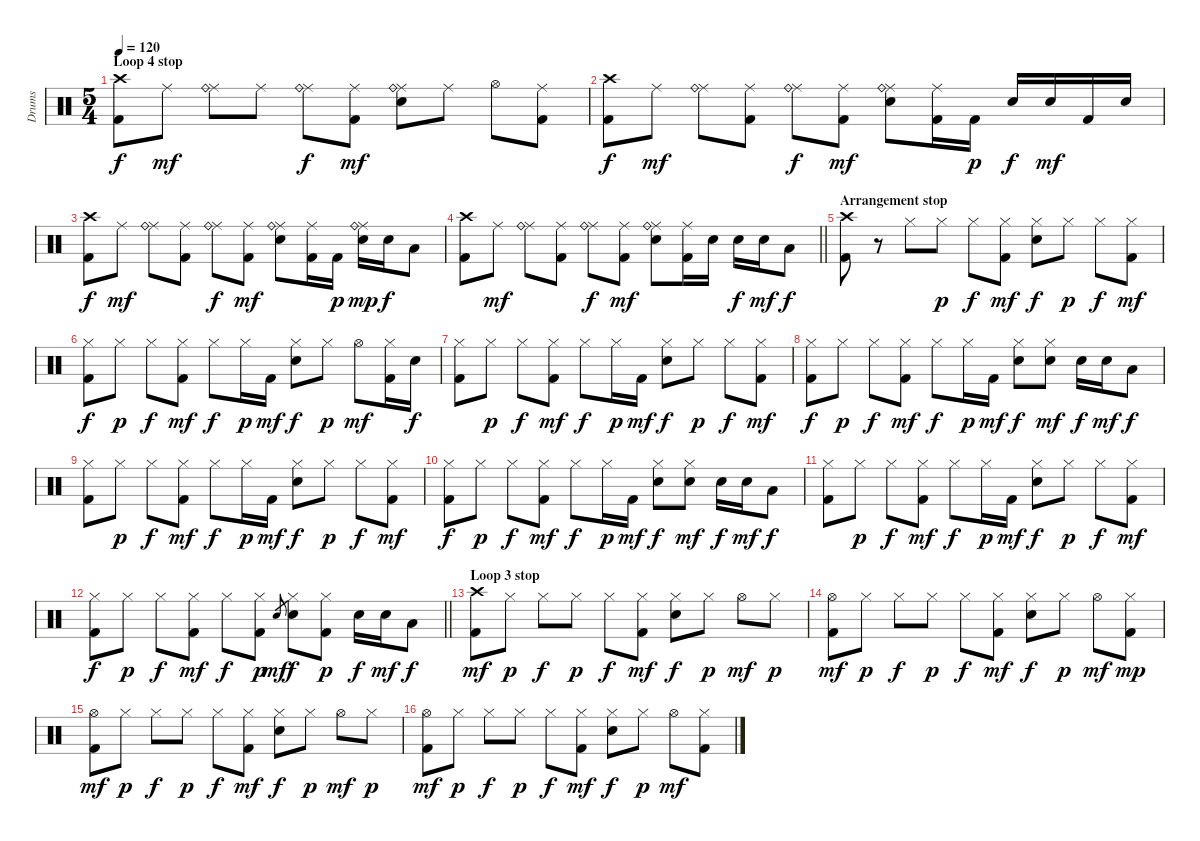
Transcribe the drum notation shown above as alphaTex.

\track ("Drums" "Drums") {instrument percussion}
\staff {score}
\articulation defaults
\ts (5 4)
\section ("" "Loop 4 stop")
\tempo 120
\clef neutral
\ks c
("Crash high (hit)" "Kick (hit) 2").8{dy f} "Ride (middle)".8{dy mf} ("Ride (middle)" "Ride (bell)").8 "Ride (middle)".8 ("Ride (middle)" "Ride (bell)").8{dy f} ("Ride (middle)" "Kick (hit) 2").8{dy mf} ("Ride (middle)" "Ride (bell)" "Electric Snare (hit)").8 "Ride (middle)".8 "Hi-Hat (open)".8 ("Ride (middle)" "Kick (hit) 2").8 |
("Crash high (hit)" "Kick (hit) 2").8{dy f} "Ride (middle)".8{dy mf} ("Ride (middle)" "Ride (bell)").8 ("Ride (middle)" "Kick (hit) 2").8 ("Ride (middle)" "Ride (bell)").8{dy f} ("Ride (middle)" "Kick (hit) 2").8{dy mf} ("Ride (middle)" "Ride (bell)" "Electric Snare (hit)").8 ("Ride (middle)" "Kick (hit) 2").16 "Kick (hit) 2".16{dy p} "Electric Snare (hit)".16{dy f} "Electric Snare (hit)".16{dy mf} "Kick (hit) 2".16 "Electric Snare (hit)".16 |
("Crash high (hit)" "Kick (hit) 2").8{dy f} "Ride (middle)".8{dy mf} ("Ride (middle)" "Ride (bell)").8 ("Ride (middle)" "Kick (hit) 2").8 ("Ride (middle)" "Ride (bell)").8{dy f} ("Ride (middle)" "Kick (hit) 2").8{dy mf} ("Ride (middle)" "Ride (bell)" "Electric Snare (hit)").8 ("Ride (middle)" "Kick (hit) 2").16 "Kick (hit) 2".16{dy p} ("Ride (middle)" "Ride (bell)" "Electric Snare (hit)").16{dy mp} "Electric Snare (hit)".16{dy f} "Low Tom (hit)".8 |
\barLineRight lightlight
("Crash high (hit)" "Kick (hit) 2").8 "Ride (middle)".8{dy mf} ("Ride (middle)" "Ride (bell)").8 ("Ride (middle)" "Kick (hit) 2").8 ("Ride (middle)" "Ride (bell)").8{dy f} ("Ride (middle)" "Kick (hit) 2").8{dy mf} ("Ride (middle)" "Ride (bell)" "Electric Snare (hit)").8 ("Ride (middle)" "Kick (hit) 2").16 "Electric Snare (hit)".16 "Electric Snare (hit)".16{dy f} "Electric Snare (hit)".16{dy mf} "Low Tom (hit)".8{dy f} |
\section ("" "Arrangement stop")
("Crash high (hit)" "Kick (hit) 2").8 r.8 "Hi-Hat (closed)".8 "Hi-Hat (closed)".8{dy p} "Hi-Hat (closed)".8{dy f} ("Hi-Hat (closed)" "Kick (hit) 2").8{dy mf} ("Hi-Hat (closed)" "Electric Snare (hit)").8{dy f} "Hi-Hat (closed)".8{dy p} "Hi-Hat (closed)".8{dy f} ("Hi-Hat (closed)" "Kick (hit) 2").8{dy mf} |
("Hi-Hat (closed)" "Kick (hit) 2").8{dy f} "Hi-Hat (closed)".8{dy p} "Hi-Hat (closed)".8{dy f} ("Hi-Hat (closed)" "Kick (hit) 2").8{dy mf} "Hi-Hat (closed)".8{dy f} "Hi-Hat (closed)".16{dy p} "Kick (hit) 2".16{dy mf} ("Hi-Hat (closed)" "Electric Snare (hit)").8{dy f} "Hi-Hat (closed)".8{dy p} "Hi-Hat (open)".8{dy mf} ("Hi-Hat (closed)" "Kick (hit) 2").16 "Electric Snare (hit)".16{dy f} |
("Hi-Hat (closed)" "Kick (hit) 2").8 "Hi-Hat (closed)".8{dy p} "Hi-Hat (closed)".8{dy f} ("Hi-Hat (closed)" "Kick (hit) 2").8{dy mf} "Hi-Hat (closed)".8{dy f} "Hi-Hat (closed)".16{dy p} "Kick (hit) 2".16{dy mf} ("Hi-Hat (closed)" "Electric Snare (hit)").8{dy f} "Hi-Hat (closed)".8{dy p} "Hi-Hat (closed)".8{dy f} ("Hi-Hat (closed)" "Kick (hit) 2").8{dy mf} |
("Hi-Hat (closed)" "Kick (hit) 2").8{dy f} "Hi-Hat (closed)".8{dy p} "Hi-Hat (closed)".8{dy f} ("Hi-Hat (closed)" "Kick (hit) 2").8{dy mf} "Hi-Hat (closed)".8{dy f} "Hi-Hat (closed)".16{dy p} "Kick (hit) 2".16{dy mf} ("Hi-Hat (closed)" "Electric Snare (hit)").8{dy f} ("Hi-Hat (closed)" "Electric Snare (hit)").8{dy mf} "Electric Snare (hit)".16{dy f} "Electric Snare (hit)".16{dy mf} "Low Tom (hit)".8{dy f} |
("Hi-Hat (closed)" "Kick (hit) 2").8 "Hi-Hat (closed)".8{dy p} "Hi-Hat (closed)".8{dy f} ("Hi-Hat (closed)" "Kick (hit) 2").8{dy mf} "Hi-Hat (closed)".8{dy f} "Hi-Hat (closed)".16{dy p} "Kick (hit) 2".16{dy mf} ("Hi-Hat (closed)" "Electric Snare (hit)").8{dy f} "Hi-Hat (closed)".8{dy p} "Hi-Hat (closed)".8{dy f} ("Hi-Hat (closed)" "Kick (hit) 2").8{dy mf} |
("Hi-Hat (closed)" "Kick (hit) 2").8{dy f} "Hi-Hat (closed)".8{dy p} "Hi-Hat (closed)".8{dy f} ("Hi-Hat (closed)" "Kick (hit) 2").8{dy mf} "Hi-Hat (closed)".8{dy f} "Hi-Hat (closed)".16{dy p} "Kick (hit) 2".16{dy mf} ("Hi-Hat (closed)" "Electric Snare (hit)").8{dy f} ("Hi-Hat (closed)" "Electric Snare (hit)").8{dy mf} "Electric Snare (hit)".16{dy f} "Electric Snare (hit)".16{dy mf} "Low Tom (hit)".8{dy f} |
("Hi-Hat (closed)" "Kick (hit) 2").8 "Hi-Hat (closed)".8{dy p} "Hi-Hat (closed)".8{dy f} ("Hi-Hat (closed)" "Kick (hit) 2").8{dy mf} "Hi-Hat (closed)".8{dy f} "Hi-Hat (closed)".16{dy p} "Kick (hit) 2".16{dy mf} ("Hi-Hat (closed)" "Electric Snare (hit)").8{dy f} "Hi-Hat (closed)".8{dy p} "Hi-Hat (closed)".8{dy f} ("Hi-Hat (closed)" "Kick (hit) 2").8{dy mf} |
\barLineRight lightlight
("Hi-Hat (closed)" "Kick (hit) 2").8{dy f} "Hi-Hat (closed)".8{dy p} "Hi-Hat (closed)".8{dy f} ("Hi-Hat (closed)" "Kick (hit) 2").8{dy mf} "Hi-Hat (closed)".8{dy f} ("Hi-Hat (closed)" "Kick (hit) 2").8{dy p} "Electric Snare (hit)".8{gr dy mf} ("Hi-Hat (closed)" "Electric Snare (hit)").8{dy f} ("Hi-Hat (closed)" "Kick (hit) 2").8{dy p} "Electric Snare (hit)".16{dy f} "Electric Snare (hit)".16{dy mf} "Low Tom (hit)".8{dy f} |
\section ("" "Loop 3 stop")
("Crash high (hit)" "Kick (hit) 2").8{dy mf} "Hi-Hat (closed)".8{dy p} "Hi-Hat (closed)".8{dy f} "Hi-Hat (closed)".8{dy p} "Hi-Hat (closed)".8{dy f} ("Hi-Hat (closed)" "Kick (hit) 2").8{dy mf} ("Hi-Hat (closed)" "Electric Snare (hit)").8{dy f} "Hi-Hat (closed)".8{dy p} "Hi-Hat (open)".8{dy mf} "Hi-Hat (closed)".8{dy p} |
("Hi-Hat (open)" "Kick (hit) 2").8{dy mf} "Hi-Hat (closed)".8{dy p} "Hi-Hat (closed)".8{dy f} "Hi-Hat (closed)".8{dy p} "Hi-Hat (closed)".8{dy f} ("Hi-Hat (closed)" "Kick (hit) 2").8{dy mf} ("Hi-Hat (closed)" "Electric Snare (hit)").8{dy f} "Hi-Hat (closed)".8{dy p} "Hi-Hat (open)".8{dy mf} ("Hi-Hat (closed)" "Kick (hit) 2").8{dy mp} |
("Hi-Hat (open)" "Kick (hit) 2").8{dy mf} "Hi-Hat (closed)".8{dy p} "Hi-Hat (closed)".8{dy f} "Hi-Hat (closed)".8{dy p} "Hi-Hat (closed)".8{dy f} ("Hi-Hat (closed)" "Kick (hit) 2").8{dy mf} ("Hi-Hat (closed)" "Electric Snare (hit)").8{dy f} "Hi-Hat (closed)".8{dy p} "Hi-Hat (open)".8{dy mf} "Hi-Hat (closed)".8{dy p} |
("Hi-Hat (open)" "Kick (hit) 2").8{dy mf} "Hi-Hat (closed)".8{dy p} "Hi-Hat (closed)".8{dy f} "Hi-Hat (closed)".8{dy p} "Hi-Hat (closed)".8{dy f} ("Hi-Hat (closed)" "Kick (hit) 2").8{dy mf} ("Hi-Hat (closed)" "Electric Snare (hit)").8{dy f} "Hi-Hat (closed)".8{dy p} "Hi-Hat (open)".8{dy mf} ("Hi-Hat (closed)" "Kick (hit) 2").8
